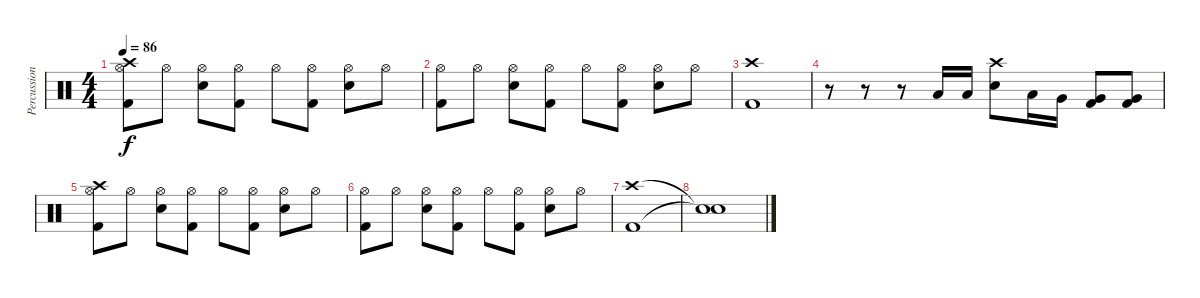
\track ("Percussion" "Percussion") {instrument percussion}
\staff {score}
\articulation defaults
\ts (4 4)
\tempo 86
\clef neutral
\ks c
("Kick (hit) 2" "Hi-Hat (open)" "Crash high (hit)").8{dy f} "Hi-Hat (open)".8 ("Snare (hit) 2" "Hi-Hat (open)").8 ("Kick (hit) 2" "Hi-Hat (open)").8 "Hi-Hat (open)".8 ("Kick (hit) 2" "Hi-Hat (open)").8 ("Snare (hit) 2" "Hi-Hat (open)").8 "Hi-Hat (open)".8 |
("Kick (hit) 2" "Hi-Hat (open)").8 "Hi-Hat (open)".8 ("Snare (hit) 2" "Hi-Hat (open)").8 ("Kick (hit) 2" "Hi-Hat (open)").8 "Hi-Hat (open)".8 ("Kick (hit) 2" "Hi-Hat (open)").8 ("Snare (hit) 2" "Hi-Hat (open)").8 "Hi-Hat (open)".8 |
("Kick (hit) 2" "Crash high (hit)").1 |
r.8 r.8 r.8 "Low Tom (hit)".16 "Low Tom (hit)".16 ("Snare (hit) 2" "Crash high (hit)").8 "Low Tom (hit)".16 "Very Low Tom (hit)".16 ("Very Low Tom (hit)" "Kick (hit) 2").8 ("Very Low Tom (hit)" "Kick (hit) 2").8 |
("Kick (hit) 2" "Hi-Hat (open)" "Crash high (hit)").8 "Hi-Hat (open)".8 ("Snare (hit) 2" "Hi-Hat (open)").8 ("Kick (hit) 2" "Hi-Hat (open)").8 "Hi-Hat (open)".8 ("Kick (hit) 2" "Hi-Hat (open)").8 ("Snare (hit) 2" "Hi-Hat (open)").8 "Hi-Hat (open)".8 |
("Kick (hit) 2" "Hi-Hat (open)").8 "Hi-Hat (open)".8 ("Snare (hit) 2" "Hi-Hat (open)").8 ("Kick (hit) 2" "Hi-Hat (open)").8 "Hi-Hat (open)".8 ("Kick (hit) 2" "Hi-Hat (open)").8 ("Snare (hit) 2" "Hi-Hat (open)").8 "Hi-Hat (open)".8 |
("Kick (hit) 2" "Crash high (hit)").1 |
("Snare (hit)"{t} "Snare (hit)"{t}).1
